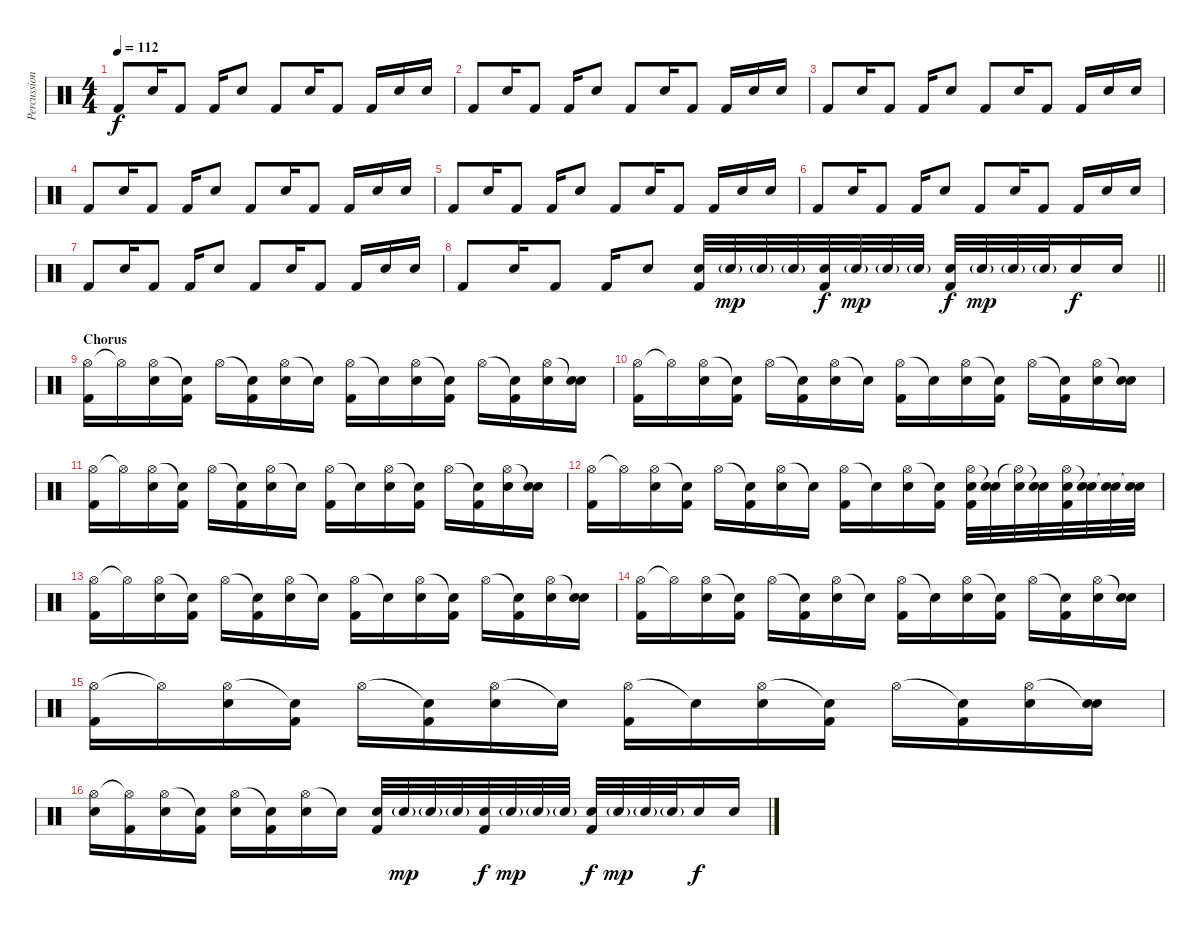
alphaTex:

\track ("Percussion" "Percussion") {instrument percussion}
\staff {score}
\articulation defaults
\ts (4 4)
\tempo 112
\clef neutral
\ks c "Kick (hit) 2".8{dy f} "Snare (hit) 2".16 "Kick (hit) 2".8 "Kick (hit) 2".16 "Snare (hit) 2".8 "Kick (hit) 2".8 "Snare (hit) 2".16 "Kick (hit) 2".8 "Kick (hit) 2".16 "Snare (hit) 2".16 "Snare (hit) 2".16
|
"Kick (hit) 2".8 "Snare (hit) 2".16 "Kick (hit) 2".8 "Kick (hit) 2".16 "Snare (hit) 2".8 "Kick (hit) 2".8 "Snare (hit) 2".16 "Kick (hit) 2".8 "Kick (hit) 2".16 "Snare (hit) 2".16 "Snare (hit) 2".16 |
"Kick (hit) 2".8 "Snare (hit) 2".16 "Kick (hit) 2".8 "Kick (hit) 2".16 "Snare (hit) 2".8 "Kick (hit) 2".8 "Snare (hit) 2".16 "Kick (hit) 2".8 "Kick (hit) 2".16 "Snare (hit) 2".16 "Snare (hit) 2".16 |
"Kick (hit) 2".8 "Snare (hit) 2".16 "Kick (hit) 2".8 "Kick (hit) 2".16 "Snare (hit) 2".8 "Kick (hit) 2".8 "Snare (hit) 2".16 "Kick (hit) 2".8 "Kick (hit) 2".16 "Snare (hit) 2".16 "Snare (hit) 2".16 |
"Kick (hit) 2".8 "Snare (hit) 2".16 "Kick (hit) 2".8 "Kick (hit) 2".16 "Snare (hit) 2".8 "Kick (hit) 2".8 "Snare (hit) 2".16 "Kick (hit) 2".8 "Kick (hit) 2".16 "Snare (hit) 2".16 "Snare (hit) 2".16 |
"Kick (hit) 2".8 "Snare (hit) 2".16 "Kick (hit) 2".8 "Kick (hit) 2".16 "Snare (hit) 2".8 "Kick (hit) 2".8 "Snare (hit) 2".16 "Kick (hit) 2".8 "Kick (hit) 2".16 "Snare (hit) 2".16 "Snare (hit) 2".16 |
"Kick (hit) 2".8 "Snare (hit) 2".16 "Kick (hit) 2".8 "Kick (hit) 2".16 "Snare (hit) 2".8 "Kick (hit) 2".8 "Snare (hit) 2".16 "Kick (hit) 2".8 "Kick (hit) 2".16 "Snare (hit) 2".16 "Snare (hit) 2".16 |
\barLineRight lightlight "Kick (hit) 2".8 "Snare (hit) 2".16 "Kick (hit) 2".8 "Kick (hit) 2".16 "Snare (hit) 2".8
("Snare (hit) 2" "Kick (hit) 2").32 "Snare (hit) 2"{g}.32{dy mp} "Snare (hit) 2"{g}.32 "Snare (hit) 2"{g}.32 ("Snare (hit) 2" "Kick (hit) 2").32{dy f} "Snare (hit) 2"{g}.32{dy mp} "Snare (hit) 2"{g}.32 "Snare (hit) 2"{g}.32 ("Snare (hit) 2" "Kick (hit) 2").32{dy f} "Snare (hit) 2"{g}.32{dy mp} "Snare (hit) 2"{g}.32 "Snare (hit) 2"{g}.32 "Snare (hit) 2".16{dy f} "Snare (hit) 2".16 |
\section ("" "Chorus")
("Hi-Hat (open)" "Kick (hit) 2").16 "Hi-Hat (open)"{t}.16 ("Hi-Hat (open)" "Snare (hit) 2").16 ("Snare (hit)"{t} "Kick (hit) 2").16 "Hi-Hat (open)".16 ("Snare (hit)"{t} "Kick (hit) 2").16 ("Hi-Hat (open)" "Snare (hit) 2").16 "Snare (hit)"{t}.16 ("Hi-Hat (open)" "Kick (hit) 2").16 "Snare (hit)"{t}.16 ("Hi-Hat (open)" "Snare (hit) 2").16 ("Snare (hit)"{t} "Kick (hit) 2").16 "Hi-Hat (open)".16 ("Snare (hit)"{t} "Kick (hit) 2").16 ("Hi-Hat (open)" "Snare (hit) 2").16 ("Snare (hit)"{t} "Snare (hit) 2").16 |
("Hi-Hat (open)" "Kick (hit) 2").16 "Hi-Hat (open)"{t}.16 ("Hi-Hat (open)" "Snare (hit) 2").16 ("Snare (hit)"{t} "Kick (hit) 2").16 "Hi-Hat (open)".16 ("Snare (hit)"{t} "Kick (hit) 2").16 ("Hi-Hat (open)" "Snare (hit) 2").16 "Snare (hit)"{t}.16 ("Hi-Hat (open)" "Kick (hit) 2").16 "Snare (hit)"{t}.16 ("Hi-Hat (open)" "Snare (hit) 2").16 ("Snare (hit)"{t} "Kick (hit) 2").16 "Hi-Hat (open)".16 ("Snare (hit)"{t} "Kick (hit) 2").16 ("Hi-Hat (open)" "Snare (hit) 2").16 ("Snare (hit)"{t} "Snare (hit) 2").16 |
("Hi-Hat (open)" "Kick (hit) 2").16 "Hi-Hat (open)"{t}.16 ("Hi-Hat (open)" "Snare (hit) 2").16 ("Snare (hit)"{t} "Kick (hit) 2").16 "Hi-Hat (open)".16 ("Snare (hit)"{t} "Kick (hit) 2").16 ("Hi-Hat (open)" "Snare (hit) 2").16 "Snare (hit)"{t}.16 ("Hi-Hat (open)" "Kick (hit) 2").16 "Snare (hit)"{t}.16 ("Hi-Hat (open)" "Snare (hit) 2").16 ("Snare (hit)"{t} "Kick (hit) 2").16 "Hi-Hat (open)".16 ("Snare (hit)"{t} "Kick (hit) 2").16 ("Hi-Hat (open)" "Snare (hit) 2").16 ("Snare (hit)"{t} "Snare (hit) 2").16 |
("Hi-Hat (open)" "Kick (hit) 2").16 "Hi-Hat (open)"{t}.16 ("Hi-Hat (open)" "Snare (hit) 2").16 ("Snare (hit)"{t} "Kick (hit) 2").16 "Hi-Hat (open)".16 ("Snare (hit)"{t} "Kick (hit) 2").16 ("Hi-Hat (open)" "Snare (hit) 2").16 "Snare (hit)"{t}.16 ("Hi-Hat (open)" "Kick (hit) 2").16 "Snare (hit)"{t}.16 ("Hi-Hat (open)" "Snare (hit) 2").16 ("Snare (hit)"{t} "Kick (hit) 2").16 ("Hi-Hat (open)" "Snare (hit) 2" "Kick (hit) 2").32 ("Snare (hit)"{t} "Snare (hit) 2").32 ("Hi-Hat (open)"{t} "Snare (hit) 2").32 ("Snare (hit)"{t} "Snare (hit) 2").32 ("Hi-Hat (open)" "Snare (hit) 2" "Kick (hit) 2").32 ("Snare (hit)"{t} "Snare (hit) 2").32 ("Snare (hit)"{t} "Snare (hit) 2").32 ("Snare (hit)"{t} "Snare (hit) 2").32 |
("Hi-Hat (open)" "Kick (hit) 2").16 "Hi-Hat (open)"{t}.16 ("Hi-Hat (open)" "Snare (hit) 2").16 ("Snare (hit)"{t} "Kick (hit) 2").16 "Hi-Hat (open)".16 ("Snare (hit)"{t} "Kick (hit) 2").16 ("Hi-Hat (open)" "Snare (hit) 2").16 "Snare (hit)"{t}.16 ("Hi-Hat (open)" "Kick (hit) 2").16 "Snare (hit)"{t}.16 ("Hi-Hat (open)" "Snare (hit) 2").16 ("Snare (hit)"{t} "Kick (hit) 2").16 "Hi-Hat (open)".16 ("Snare (hit)"{t} "Kick (hit) 2").16 ("Hi-Hat (open)" "Snare (hit) 2").16 ("Snare (hit)"{t} "Snare (hit) 2").16 |
("Hi-Hat (open)" "Kick (hit) 2").16 "Hi-Hat (open)"{t}.16 ("Hi-Hat (open)" "Snare (hit) 2").16 ("Snare (hit)"{t} "Kick (hit) 2").16 "Hi-Hat (open)".16 ("Snare (hit)"{t} "Kick (hit) 2").16 ("Hi-Hat (open)" "Snare (hit) 2").16 "Snare (hit)"{t}.16 ("Hi-Hat (open)" "Kick (hit) 2").16 "Snare (hit)"{t}.16 ("Hi-Hat (open)" "Snare (hit) 2").16 ("Snare (hit)"{t} "Kick (hit) 2").16 "Hi-Hat (open)".16 ("Snare (hit)"{t} "Kick (hit) 2").16 ("Hi-Hat (open)" "Snare (hit) 2").16 ("Snare (hit)"{t} "Snare (hit) 2").16 |
("Hi-Hat (open)" "Kick (hit) 2").16 "Hi-Hat (open)"{t}.16 ("Hi-Hat (open)" "Snare (hit) 2").16 ("Snare (hit)"{t} "Kick (hit) 2").16 "Hi-Hat (open)".16 ("Snare (hit)"{t} "Kick (hit) 2").16 ("Hi-Hat (open)" "Snare (hit) 2").16 "Snare (hit)"{t}.16 ("Hi-Hat (open)" "Kick (hit) 2").16 "Snare (hit)"{t}.16 ("Hi-Hat (open)" "Snare (hit) 2").16 ("Snare (hit)"{t} "Kick (hit) 2").16 "Hi-Hat (open)".16 ("Snare (hit)"{t} "Kick (hit) 2").16 ("Hi-Hat (open)" "Snare (hit) 2").16 ("Snare (hit)"{t} "Snare (hit) 2").16 |
("Hi-Hat (open)" "Snare (hit) 2").16 ("Hi-Hat (open)"{t} "Kick (hit) 2").16 ("Hi-Hat (open)" "Snare (hit) 2").16 ("Snare (hit)"{t} "Kick (hit) 2").16 ("Hi-Hat (open)" "Snare (hit) 2").16 ("Snare (hit)"{t} "Kick (hit) 2").16 ("Hi-Hat (open)" "Snare (hit) 2").16 "Snare (hit)"{t}.16 ("Snare (hit) 2" "Kick (hit) 2").32 "Snare (hit) 2"{g}.32{dy mp} "Snare (hit) 2"{g}.32 "Snare (hit) 2"{g}.32 ("Snare (hit) 2" "Kick (hit) 2").32{dy f} "Snare (hit) 2"{g}.32{dy mp} "Snare (hit) 2"{g}.32 "Snare (hit) 2"{g}.32 ("Snare (hit) 2" "Kick (hit) 2").32{dy f} "Snare (hit) 2"{g}.32{dy mp} "Snare (hit) 2"{g}.32 "Snare (hit) 2"{g}.32 "Snare (hit) 2".16{dy f} "Snare (hit) 2".16
